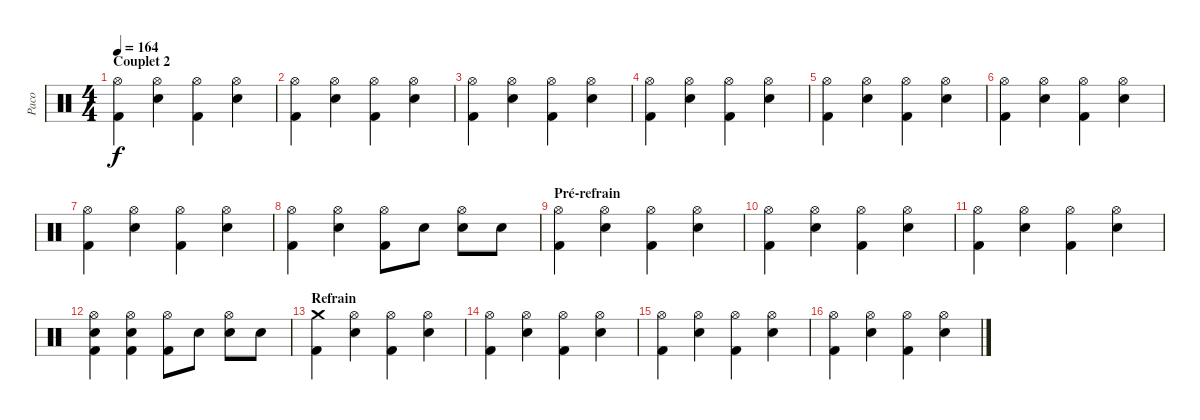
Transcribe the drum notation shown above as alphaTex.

\track ("Paco" "Paco") {instrument percussion}
\staff {score}
\articulation defaults
\ts (4 4)
\section ("" "Couplet 2")
\tempo 164
\clef neutral
\ks c
("Hi-Hat (open)" "Kick (hit) 2").4{dy f} ("Hi-Hat (open)" "Electric Snare (hit)").4 ("Hi-Hat (open)" "Kick (hit) 2").4 ("Hi-Hat (open)" "Electric Snare (hit)").4 |
("Hi-Hat (open)" "Kick (hit) 2").4 ("Hi-Hat (open)" "Electric Snare (hit)").4 ("Hi-Hat (open)" "Kick (hit) 2").4 ("Hi-Hat (open)" "Electric Snare (hit)").4 |
("Hi-Hat (open)" "Kick (hit) 2").4 ("Hi-Hat (open)" "Electric Snare (hit)").4 ("Hi-Hat (open)" "Kick (hit) 2").4 ("Hi-Hat (open)" "Electric Snare (hit)").4 |
("Hi-Hat (open)" "Kick (hit) 2").4 ("Hi-Hat (open)" "Electric Snare (hit)").4 ("Hi-Hat (open)" "Kick (hit) 2").4 ("Hi-Hat (open)" "Electric Snare (hit)").4 |
("Hi-Hat (open)" "Kick (hit) 2").4 ("Hi-Hat (open)" "Electric Snare (hit)").4 ("Hi-Hat (open)" "Kick (hit) 2").4 ("Hi-Hat (open)" "Electric Snare (hit)").4 |
("Hi-Hat (open)" "Kick (hit) 2").4 ("Hi-Hat (open)" "Electric Snare (hit)").4 ("Hi-Hat (open)" "Kick (hit) 2").4 ("Hi-Hat (open)" "Electric Snare (hit)").4 |
("Hi-Hat (open)" "Kick (hit) 2").4 ("Hi-Hat (open)" "Electric Snare (hit)").4 ("Hi-Hat (open)" "Kick (hit) 2").4 ("Hi-Hat (open)" "Electric Snare (hit)").4 |
("Hi-Hat (open)" "Kick (hit) 2").4 ("Hi-Hat (open)" "Electric Snare (hit)").4 ("Hi-Hat (open)" "Kick (hit) 2").8 "Electric Snare (hit)".8 ("Hi-Hat (open)" "Electric Snare (hit)").8 "Electric Snare (hit)".8 |
\section ("" "Pré-refrain")
("Hi-Hat (open)" "Kick (hit) 2").4 ("Hi-Hat (open)" "Electric Snare (hit)").4 ("Hi-Hat (open)" "Kick (hit) 2").4 ("Hi-Hat (open)" "Electric Snare (hit)").4 |
("Hi-Hat (open)" "Kick (hit) 2").4 ("Hi-Hat (open)" "Electric Snare (hit)").4 ("Hi-Hat (open)" "Kick (hit) 2").4 ("Hi-Hat (open)" "Electric Snare (hit)").4 |
("Hi-Hat (open)" "Kick (hit) 2").4 ("Hi-Hat (open)" "Electric Snare (hit)").4 ("Hi-Hat (open)" "Kick (hit) 2").4 ("Hi-Hat (open)" "Electric Snare (hit)").4 |
("Hi-Hat (open)" "Electric Snare (hit)" "Kick (hit) 2").4 ("Hi-Hat (open)" "Electric Snare (hit)" "Kick (hit) 2").4 ("Hi-Hat (open)" "Kick (hit) 2").8 "Electric Snare (hit)".8 ("Hi-Hat (open)" "Electric Snare (hit)").8 "Electric Snare (hit)".8 |
\section ("" "Refrain")
("Crash medium (hit)" "Kick (hit) 2").4 ("Hi-Hat (open)" "Electric Snare (hit)").4 ("Hi-Hat (open)" "Kick (hit) 2").4 ("Hi-Hat (open)" "Electric Snare (hit)").4 |
("Hi-Hat (open)" "Kick (hit) 2").4 ("Hi-Hat (open)" "Electric Snare (hit)").4 ("Hi-Hat (open)" "Kick (hit) 2").4 ("Hi-Hat (open)" "Electric Snare (hit)").4 |
("Hi-Hat (open)" "Kick (hit) 2").4 ("Hi-Hat (open)" "Electric Snare (hit)").4 ("Hi-Hat (open)" "Kick (hit) 2").4 ("Hi-Hat (open)" "Electric Snare (hit)").4 |
("Hi-Hat (open)" "Kick (hit) 2").4 ("Hi-Hat (open)" "Electric Snare (hit)").4 ("Hi-Hat (open)" "Kick (hit) 2").4 ("Hi-Hat (open)" "Electric Snare (hit)").4
